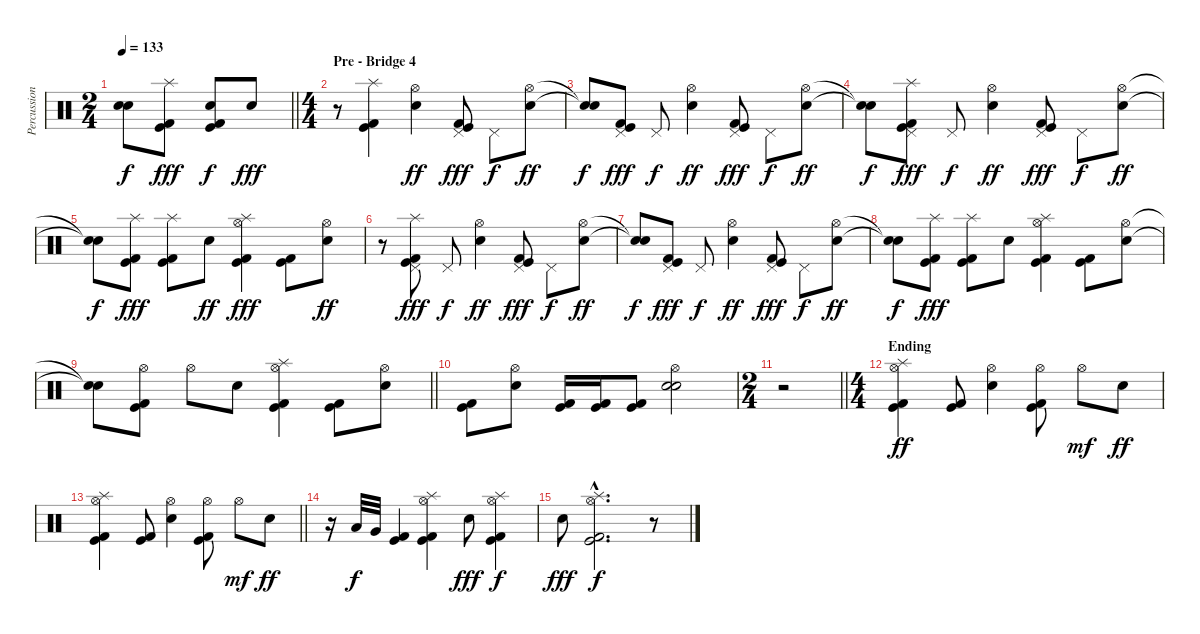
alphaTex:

\track ("Percussion" "Percussion") {instrument percussion}
\staff {score}
\articulation defaults
\ts (2 4)
\tempo 133
\clef neutral
\barLineRight lightlight
\ks c
("Snare (hit)"{t} "Snare (hit)"{t}).8{dy f} ("Splash (hit)" "Kick (hit)" "Kick (hit) 2").8{dy fff} ("Snare (hit) 2" "Kick (hit)" "Kick (hit) 2").8{dy f} "Snare (hit) 2".8{dy fff} |
\ts (4 4)
\section ("" "Pre - Bridge 4")
r.8 ("Splash (hit)" "Kick (hit)" "Kick (hit) 2").4 ("Hi-Hat (open)" "Snare (hit) 2").4{dy ff} ("Pedal Hi-Hat (hit)" "Kick (hit)" "Kick (hit) 2").8{dy fff} "Pedal Hi-Hat (hit)".8{dy f} ("Hi-Hat (open)" "Snare (hit) 2").8{dy ff} |
("Snare (hit)"{t} "Snare (hit)"{t}).8{dy f} ("Pedal Hi-Hat (hit)" "Kick (hit)" "Kick (hit) 2").8{dy fff} "Pedal Hi-Hat (hit)".8{dy f} ("Hi-Hat (open)" "Snare (hit) 2").4{dy ff} ("Pedal Hi-Hat (hit)" "Kick (hit)" "Kick (hit) 2").8{dy fff} "Pedal Hi-Hat (hit)".8{dy f} ("Hi-Hat (open)" "Snare (hit) 2").8{dy ff} |
("Snare (hit)"{t} "Snare (hit)"{t}).8{dy f} ("Splash (hit)" "Pedal Hi-Hat (hit)" "Kick (hit)" "Kick (hit) 2").8{dy fff} "Pedal Hi-Hat (hit)".8{dy f} ("Hi-Hat (open)" "Snare (hit) 2").4{dy ff} ("Pedal Hi-Hat (hit)" "Kick (hit)" "Kick (hit) 2").8{dy fff} "Pedal Hi-Hat (hit)".8{dy f} ("Hi-Hat (open)" "Snare (hit) 2").8{dy ff} |
("Snare (hit)"{t} "Snare (hit)"{t}).8{dy f} ("Splash (hit)" "Kick (hit)" "Kick (hit) 2").8{dy fff} ("Splash (hit)" "Kick (hit)" "Kick (hit) 2").8 "Snare (hit) 2".8{dy ff} ("Splash (hit)" "Hi-Hat (open)" "Kick (hit)" "Kick (hit) 2").4{dy fff} ("Kick (hit)" "Kick (hit) 2").8 ("Hi-Hat (open)" "Snare (hit) 2").8{dy ff} |
r.8 ("Splash (hit)" "Pedal Hi-Hat (hit)" "Kick (hit)" "Kick (hit) 2").8{dy fff} "Pedal Hi-Hat (hit)".8{dy f} ("Hi-Hat (open)" "Snare (hit) 2").4{dy ff} ("Pedal Hi-Hat (hit)" "Kick (hit)" "Kick (hit) 2").8{dy fff} "Pedal Hi-Hat (hit)".8{dy f} ("Hi-Hat (open)" "Snare (hit) 2").8{dy ff} |
("Snare (hit)"{t} "Snare (hit)"{t}).8{dy f} ("Pedal Hi-Hat (hit)" "Kick (hit)" "Kick (hit) 2").8{dy fff} "Pedal Hi-Hat (hit)".8{dy f} ("Hi-Hat (open)" "Snare (hit) 2").4{dy ff} ("Pedal Hi-Hat (hit)" "Kick (hit)" "Kick (hit) 2").8{dy fff} "Pedal Hi-Hat (hit)".8{dy f} ("Hi-Hat (open)" "Snare (hit) 2").8{dy ff} |
("Snare (hit)"{t} "Snare (hit)"{t}).8{dy f} ("Splash (hit)" "Kick (hit)" "Kick (hit) 2").8{dy fff} ("Splash (hit)" "Kick (hit)" "Kick (hit) 2").8 "Snare (hit) 2".8 ("Splash (hit)" "Hi-Hat (open)" "Kick (hit)" "Kick (hit) 2").4 ("Kick (hit)" "Kick (hit) 2").8 ("Hi-Hat (open)" "Snare (hit) 2").8 |
\barLineRight lightlight
("Snare (hit)"{t} "Snare (hit)"{t}).8 ("Hi-Hat (open)" "Kick (hit)" "Kick (hit) 2").8 "Hi-Hat (open)".8 "Snare (hit) 2".8 ("Splash (hit)" "Hi-Hat (open)" "Kick (hit)" "Kick (hit) 2").4 ("Kick (hit)" "Kick (hit) 2").8 ("Hi-Hat (open)" "Snare (hit) 2").8 |
("Kick (hit)" "Kick (hit) 2").8 ("Hi-Hat (open)" "Snare (hit) 2").8 ("Kick (hit)" "Kick (hit) 2").16 ("Kick (hit)" "Kick (hit) 2").16 ("Kick (hit)" "Kick (hit) 2").8 ("Hi-Hat (open)" "Snare (hit) 2" "Electric Snare (hit)").2{bd 60} |
\ts (2 4)
\barLineRight lightlight
r.2 |
\ts (4 4)
\section ("" "Ending")
("Splash (hit)" "Hi-Hat (open)" "Kick (hit)" "Kick (hit) 2").4{dy ff} ("Kick (hit)" "Kick (hit) 2").8 ("Hi-Hat (open)" "Snare (hit) 2").4 ("Hi-Hat (open)" "Kick (hit)" "Kick (hit) 2").8 "Hi-Hat (open)".8{dy mf} "Snare (hit) 2".8{dy ff} |
\barLineRight lightlight
("Splash (hit)" "Hi-Hat (open)" "Kick (hit)" "Kick (hit) 2").4 ("Kick (hit)" "Kick (hit) 2").8 ("Hi-Hat (open)" "Snare (hit) 2").4 ("Hi-Hat (open)" "Kick (hit)" "Kick (hit) 2").8 "Hi-Hat (open)".8{dy mf} "Snare (hit) 2".8{dy ff} |
r.16 "Low Tom (hit)".32{dy f} "Very Low Tom (hit)".32 ("Kick (hit)" "Kick (hit) 2").4 ("Splash (hit)" "Hi-Hat (open)" "Kick (hit)" "Kick (hit) 2").4 "Snare (hit) 2".8{dy fff} ("Splash (hit)" "Hi-Hat (open)" "Kick (hit)" "Kick (hit) 2").4{dy f} |
"Snare (hit) 2".8{dy fff} ("Splash (hit)"{hac} "Hi-Hat (open)"{hac} "Kick (hit)"{hac} "Kick (hit) 2"{hac}).2{d dy f} r.8
